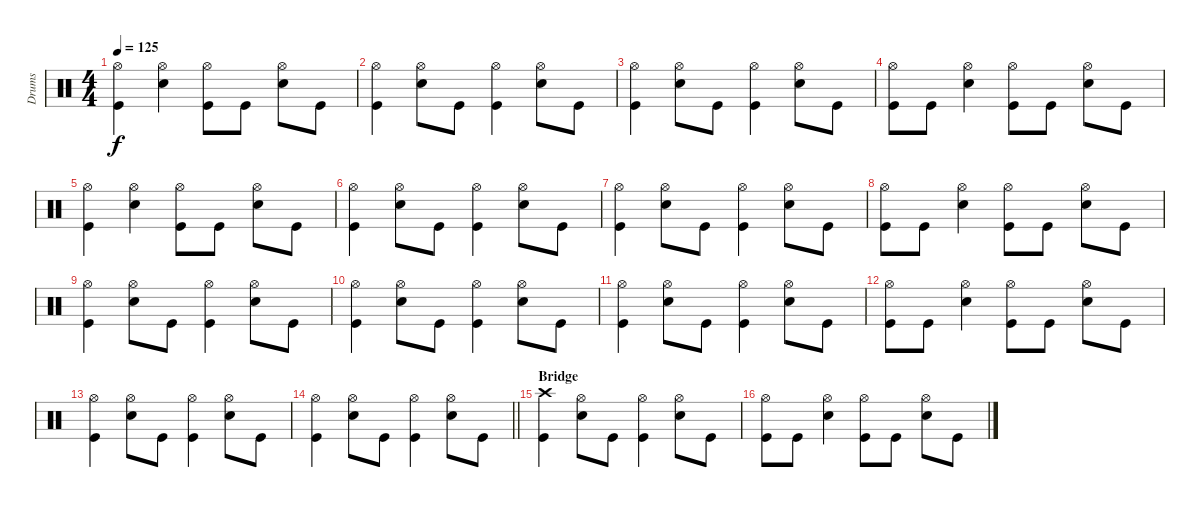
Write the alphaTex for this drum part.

\track ("Drums" "Drums") {instrument percussion}
\staff {score}
\articulation defaults
\ts (4 4)
\tempo 125
\clef neutral
\ks c
("Hi-Hat (open)" "Kick (hit)").4{dy f} ("Hi-Hat (open)" "Electric Snare (hit)").4 ("Hi-Hat (open)" "Kick (hit)").8 "Kick (hit)".8 ("Hi-Hat (open)" "Electric Snare (hit)").8 "Kick (hit)".8 |
("Hi-Hat (open)" "Kick (hit)").4 ("Hi-Hat (open)" "Electric Snare (hit)").8 "Kick (hit)".8 ("Hi-Hat (open)" "Kick (hit)").4 ("Hi-Hat (open)" "Electric Snare (hit)").8 "Kick (hit)".8 |
("Hi-Hat (open)" "Kick (hit)").4 ("Hi-Hat (open)" "Electric Snare (hit)").8 "Kick (hit)".8 ("Hi-Hat (open)" "Kick (hit)").4 ("Hi-Hat (open)" "Electric Snare (hit)").8 "Kick (hit)".8 |
("Hi-Hat (open)" "Kick (hit)").8 "Kick (hit)".8 ("Hi-Hat (open)" "Electric Snare (hit)").4 ("Hi-Hat (open)" "Kick (hit)").8 "Kick (hit)".8 ("Hi-Hat (open)" "Electric Snare (hit)").8 "Kick (hit)".8 |
("Hi-Hat (open)" "Kick (hit)").4 ("Hi-Hat (open)" "Electric Snare (hit)").4 ("Hi-Hat (open)" "Kick (hit)").8 "Kick (hit)".8 ("Hi-Hat (open)" "Electric Snare (hit)").8 "Kick (hit)".8 |
("Hi-Hat (open)" "Kick (hit)").4 ("Hi-Hat (open)" "Electric Snare (hit)").8 "Kick (hit)".8 ("Hi-Hat (open)" "Kick (hit)").4 ("Hi-Hat (open)" "Electric Snare (hit)").8 "Kick (hit)".8 |
("Hi-Hat (open)" "Kick (hit)").4 ("Hi-Hat (open)" "Electric Snare (hit)").8 "Kick (hit)".8 ("Hi-Hat (open)" "Kick (hit)").4 ("Hi-Hat (open)" "Electric Snare (hit)").8 "Kick (hit)".8 |
("Hi-Hat (open)" "Kick (hit)").8 "Kick (hit)".8 ("Hi-Hat (open)" "Electric Snare (hit)").4 ("Hi-Hat (open)" "Kick (hit)").8 "Kick (hit)".8 ("Hi-Hat (open)" "Electric Snare (hit)").8 "Kick (hit)".8 |
("Hi-Hat (open)" "Kick (hit)").4 ("Hi-Hat (open)" "Electric Snare (hit)").8 "Kick (hit)".8 ("Hi-Hat (open)" "Kick (hit)").4 ("Hi-Hat (open)" "Electric Snare (hit)").8 "Kick (hit)".8 |
("Hi-Hat (open)" "Kick (hit)").4 ("Hi-Hat (open)" "Electric Snare (hit)").8 "Kick (hit)".8 ("Hi-Hat (open)" "Kick (hit)").4 ("Hi-Hat (open)" "Electric Snare (hit)").8 "Kick (hit)".8 |
("Hi-Hat (open)" "Kick (hit)").4 ("Hi-Hat (open)" "Electric Snare (hit)").8 "Kick (hit)".8 ("Hi-Hat (open)" "Kick (hit)").4 ("Hi-Hat (open)" "Electric Snare (hit)").8 "Kick (hit)".8 |
("Hi-Hat (open)" "Kick (hit)").8 "Kick (hit)".8 ("Hi-Hat (open)" "Electric Snare (hit)").4 ("Hi-Hat (open)" "Kick (hit)").8 "Kick (hit)".8 ("Hi-Hat (open)" "Electric Snare (hit)").8 "Kick (hit)".8 |
("Hi-Hat (open)" "Kick (hit)").4 ("Hi-Hat (open)" "Electric Snare (hit)").8 "Kick (hit)".8 ("Hi-Hat (open)" "Kick (hit)").4 ("Hi-Hat (open)" "Electric Snare (hit)").8 "Kick (hit)".8 |
\barLineRight lightlight
("Hi-Hat (open)" "Kick (hit)").4 ("Hi-Hat (open)" "Electric Snare (hit)").8 "Kick (hit)".8 ("Hi-Hat (open)" "Kick (hit)").4 ("Hi-Hat (open)" "Electric Snare (hit)").8 "Kick (hit)".8 |
\section ("" "Bridge")
("Crash high (hit)" "Kick (hit)").4 ("Hi-Hat (open)" "Electric Snare (hit)").8 "Kick (hit)".8 ("Hi-Hat (open)" "Kick (hit)").4 ("Hi-Hat (open)" "Electric Snare (hit)").8 "Kick (hit)".8 |
("Hi-Hat (open)" "Kick (hit)").8 "Kick (hit)".8 ("Hi-Hat (open)" "Electric Snare (hit)").4 ("Hi-Hat (open)" "Kick (hit)").8 "Kick (hit)".8 ("Hi-Hat (open)" "Electric Snare (hit)").8 "Kick (hit)".8
